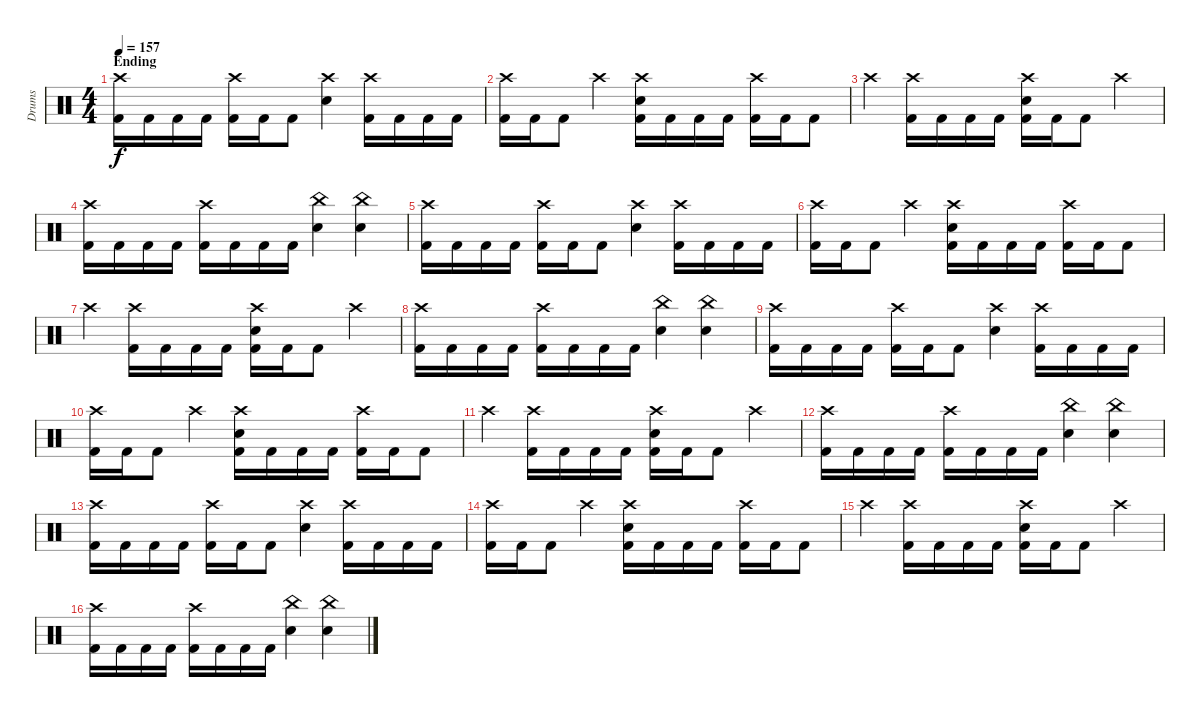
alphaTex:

\track ("Drums" "Drums") {instrument percussion}
\staff {score}
\articulation defaults
\ts (4 4)
\section ("" "Ending")
\tempo 157
\clef neutral
\ks c
("Crash high (hit)" "Kick (hit) 2").16{dy f} "Kick (hit) 2".16 "Kick (hit) 2".16 "Kick (hit) 2".16 ("Crash high (hit)" "Kick (hit) 2").16 "Kick (hit) 2".16 "Kick (hit) 2".8 ("Crash high (hit)" "Electric Snare (hit)").4 ("Crash high (hit)" "Kick (hit) 2").16 "Kick (hit) 2".16 "Kick (hit) 2".16 "Kick (hit) 2".16 |
("Crash high (hit)" "Kick (hit) 2").16 "Kick (hit) 2".16 "Kick (hit) 2".8 "Crash high (hit)".4 ("Crash high (hit)" "Electric Snare (hit)" "Kick (hit) 2").16 "Kick (hit) 2".16 "Kick (hit) 2".16 "Kick (hit) 2".16 ("Crash high (hit)" "Kick (hit) 2").16 "Kick (hit) 2".16 "Kick (hit) 2".8 |
"Crash high (hit)".4 ("Crash high (hit)" "Kick (hit) 2").16 "Kick (hit) 2".16 "Kick (hit) 2".16 "Kick (hit) 2".16 ("Crash high (hit)" "Electric Snare (hit)" "Kick (hit) 2").16 "Kick (hit) 2".16 "Kick (hit) 2".8 "Crash high (hit)".4 |
("Crash high (hit)" "Kick (hit) 2").16 "Kick (hit) 2".16 "Kick (hit) 2".16 "Kick (hit) 2".16 ("Crash high (hit)" "Kick (hit) 2").16 "Kick (hit) 2".16 "Kick (hit) 2".16 "Kick (hit) 2".16 ("China (hit)" "Electric Snare (hit)").4 ("China (hit)" "Electric Snare (hit)").4 |
("Crash high (hit)" "Kick (hit) 2").16 "Kick (hit) 2".16 "Kick (hit) 2".16 "Kick (hit) 2".16 ("Crash high (hit)" "Kick (hit) 2").16 "Kick (hit) 2".16 "Kick (hit) 2".8 ("Crash high (hit)" "Electric Snare (hit)").4 ("Crash high (hit)" "Kick (hit) 2").16 "Kick (hit) 2".16 "Kick (hit) 2".16 "Kick (hit) 2".16 |
("Crash high (hit)" "Kick (hit) 2").16 "Kick (hit) 2".16 "Kick (hit) 2".8 "Crash high (hit)".4 ("Crash high (hit)" "Electric Snare (hit)" "Kick (hit) 2").16 "Kick (hit) 2".16 "Kick (hit) 2".16 "Kick (hit) 2".16 ("Crash high (hit)" "Kick (hit) 2").16 "Kick (hit) 2".16 "Kick (hit) 2".8 |
"Crash high (hit)".4 ("Crash high (hit)" "Kick (hit) 2").16 "Kick (hit) 2".16 "Kick (hit) 2".16 "Kick (hit) 2".16 ("Crash high (hit)" "Electric Snare (hit)" "Kick (hit) 2").16 "Kick (hit) 2".16 "Kick (hit) 2".8 "Crash high (hit)".4 |
("Crash high (hit)" "Kick (hit) 2").16 "Kick (hit) 2".16 "Kick (hit) 2".16 "Kick (hit) 2".16 ("Crash high (hit)" "Kick (hit) 2").16 "Kick (hit) 2".16 "Kick (hit) 2".16 "Kick (hit) 2".16 ("China (hit)" "Electric Snare (hit)").4 ("China (hit)" "Electric Snare (hit)").4 |
("Crash high (hit)" "Kick (hit) 2").16 "Kick (hit) 2".16 "Kick (hit) 2".16 "Kick (hit) 2".16 ("Crash high (hit)" "Kick (hit) 2").16 "Kick (hit) 2".16 "Kick (hit) 2".8 ("Crash high (hit)" "Electric Snare (hit)").4 ("Crash high (hit)" "Kick (hit) 2").16 "Kick (hit) 2".16 "Kick (hit) 2".16 "Kick (hit) 2".16 |
("Crash high (hit)" "Kick (hit) 2").16 "Kick (hit) 2".16 "Kick (hit) 2".8 "Crash high (hit)".4 ("Crash high (hit)" "Electric Snare (hit)" "Kick (hit) 2").16 "Kick (hit) 2".16 "Kick (hit) 2".16 "Kick (hit) 2".16 ("Crash high (hit)" "Kick (hit) 2").16 "Kick (hit) 2".16 "Kick (hit) 2".8 |
"Crash high (hit)".4 ("Crash high (hit)" "Kick (hit) 2").16 "Kick (hit) 2".16 "Kick (hit) 2".16 "Kick (hit) 2".16 ("Crash high (hit)" "Electric Snare (hit)" "Kick (hit) 2").16 "Kick (hit) 2".16 "Kick (hit) 2".8 "Crash high (hit)".4 |
("Crash high (hit)" "Kick (hit) 2").16 "Kick (hit) 2".16 "Kick (hit) 2".16 "Kick (hit) 2".16 ("Crash high (hit)" "Kick (hit) 2").16 "Kick (hit) 2".16 "Kick (hit) 2".16 "Kick (hit) 2".16 ("China (hit)" "Electric Snare (hit)").4 ("China (hit)" "Electric Snare (hit)").4 |
("Crash high (hit)" "Kick (hit) 2").16 "Kick (hit) 2".16 "Kick (hit) 2".16 "Kick (hit) 2".16 ("Crash high (hit)" "Kick (hit) 2").16 "Kick (hit) 2".16 "Kick (hit) 2".8 ("Crash high (hit)" "Electric Snare (hit)").4 ("Crash high (hit)" "Kick (hit) 2").16 "Kick (hit) 2".16 "Kick (hit) 2".16 "Kick (hit) 2".16 |
("Crash high (hit)" "Kick (hit) 2").16 "Kick (hit) 2".16 "Kick (hit) 2".8 "Crash high (hit)".4 ("Crash high (hit)" "Electric Snare (hit)" "Kick (hit) 2").16 "Kick (hit) 2".16 "Kick (hit) 2".16 "Kick (hit) 2".16 ("Crash high (hit)" "Kick (hit) 2").16 "Kick (hit) 2".16 "Kick (hit) 2".8 |
"Crash high (hit)".4 ("Crash high (hit)" "Kick (hit) 2").16 "Kick (hit) 2".16 "Kick (hit) 2".16 "Kick (hit) 2".16 ("Crash high (hit)" "Electric Snare (hit)" "Kick (hit) 2").16 "Kick (hit) 2".16 "Kick (hit) 2".8 "Crash high (hit)".4 |
("Crash high (hit)" "Kick (hit) 2").16 "Kick (hit) 2".16 "Kick (hit) 2".16 "Kick (hit) 2".16 ("Crash high (hit)" "Kick (hit) 2").16 "Kick (hit) 2".16 "Kick (hit) 2".16 "Kick (hit) 2".16 ("China (hit)" "Electric Snare (hit)").4 ("China (hit)" "Electric Snare (hit)").4
